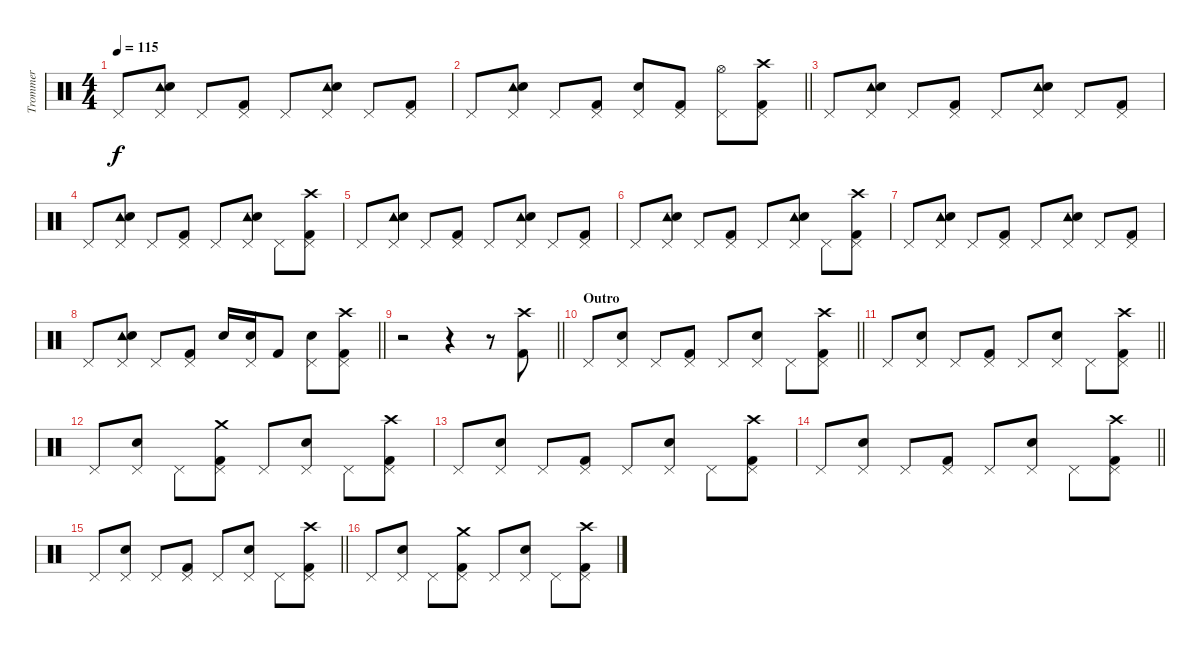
\track ("Trommer" "Trommer") {instrument percussion}
\staff {score}
\articulation defaults
\ts (4 4)
\tempo 115
\clef neutral
\ks c "Pedal Hi-Hat (hit)".8{dy f}
("Pedal Hi-Hat (hit)" "Tambourine (hit)" "Electric Snare (hit)").8 "Pedal Hi-Hat (hit)".8 ("Pedal Hi-Hat (hit)" "Kick (hit) 2").8 "Pedal Hi-Hat (hit)".8 ("Pedal Hi-Hat (hit)" "Tambourine (hit)" "Electric Snare (hit)").8 "Pedal Hi-Hat (hit)".8 ("Pedal Hi-Hat (hit)" "Kick (hit) 2").8 |
\barLineRight lightlight "Pedal Hi-Hat (hit)".8
("Pedal Hi-Hat (hit)" "Tambourine (hit)" "Electric Snare (hit)").8 "Pedal Hi-Hat (hit)".8 ("Pedal Hi-Hat (hit)" "Kick (hit) 2").8 ("Pedal Hi-Hat (hit)" "Electric Snare (hit)").8 ("Pedal Hi-Hat (hit)" "Kick (hit) 2").8 ("Pedal Hi-Hat (hit)" "Hi-Hat (open)").8 ("Pedal Hi-Hat (hit)" "Crash high (hit)" "Kick (hit) 2").8 |
"Pedal Hi-Hat (hit)".8 ("Pedal Hi-Hat (hit)" "Tambourine (hit)" "Electric Snare (hit)").8 "Pedal Hi-Hat (hit)".8 ("Pedal Hi-Hat (hit)" "Kick (hit) 2").8 "Pedal Hi-Hat (hit)".8 ("Pedal Hi-Hat (hit)" "Tambourine (hit)" "Electric Snare (hit)").8 "Pedal Hi-Hat (hit)".8 ("Pedal Hi-Hat (hit)" "Kick (hit) 2").8 |
"Pedal Hi-Hat (hit)".8 ("Pedal Hi-Hat (hit)" "Tambourine (hit)" "Electric Snare (hit)").8 "Pedal Hi-Hat (hit)".8 ("Pedal Hi-Hat (hit)" "Kick (hit) 2").8 "Pedal Hi-Hat (hit)".8 ("Pedal Hi-Hat (hit)" "Tambourine (hit)" "Electric Snare (hit)").8 "Pedal Hi-Hat (hit)".8 ("Pedal Hi-Hat (hit)" "Crash high (hit)" "Kick (hit) 2").8 |
"Pedal Hi-Hat (hit)".8 ("Pedal Hi-Hat (hit)" "Tambourine (hit)" "Electric Snare (hit)").8 "Pedal Hi-Hat (hit)".8 ("Pedal Hi-Hat (hit)" "Kick (hit) 2").8 "Pedal Hi-Hat (hit)".8 ("Pedal Hi-Hat (hit)" "Tambourine (hit)" "Electric Snare (hit)").8 "Pedal Hi-Hat (hit)".8 ("Pedal Hi-Hat (hit)" "Kick (hit) 2").8 |
"Pedal Hi-Hat (hit)".8 ("Pedal Hi-Hat (hit)" "Tambourine (hit)" "Electric Snare (hit)").8 "Pedal Hi-Hat (hit)".8 ("Pedal Hi-Hat (hit)" "Kick (hit) 2").8 "Pedal Hi-Hat (hit)".8 ("Pedal Hi-Hat (hit)" "Tambourine (hit)" "Electric Snare (hit)").8 "Pedal Hi-Hat (hit)".8 ("Pedal Hi-Hat (hit)" "Crash high (hit)" "Kick (hit) 2").8 |
"Pedal Hi-Hat (hit)".8 ("Pedal Hi-Hat (hit)" "Tambourine (hit)" "Electric Snare (hit)").8 "Pedal Hi-Hat (hit)".8 ("Pedal Hi-Hat (hit)" "Kick (hit) 2").8 "Pedal Hi-Hat (hit)".8 ("Pedal Hi-Hat (hit)" "Tambourine (hit)" "Electric Snare (hit)").8 "Pedal Hi-Hat (hit)".8 ("Pedal Hi-Hat (hit)" "Kick (hit) 2").8 |
\barLineRight lightlight "Pedal Hi-Hat (hit)".8
("Pedal Hi-Hat (hit)" "Tambourine (hit)" "Electric Snare (hit)").8 "Pedal Hi-Hat (hit)".8 ("Pedal Hi-Hat (hit)" "Kick (hit) 2").8 "Electric Snare (hit)".16 ("Pedal Hi-Hat (hit)" "Electric Snare (hit)").16 "Kick (hit) 2".8 ("Pedal Hi-Hat (hit)" "Electric Snare (hit)").8 ("Pedal Hi-Hat (hit)" "Crash high (hit)" "Kick (hit) 2").8 |
\barLineRight lightlight
r.2 r.4 r.8 ("Crash high (hit)" "Kick (hit) 2").8 |
\section ("" "Outro")
\barLineRight lightlight "Pedal Hi-Hat (hit)".8
("Pedal Hi-Hat (hit)" "Electric Snare (hit)").8 "Pedal Hi-Hat (hit)".8 ("Pedal Hi-Hat (hit)" "Kick (hit) 2").8 "Pedal Hi-Hat (hit)".8 ("Pedal Hi-Hat (hit)" "Electric Snare (hit)").8 "Pedal Hi-Hat (hit)".8 ("Pedal Hi-Hat (hit)" "Crash high (hit)" "Kick (hit) 2").8 |
\barLineRight lightlight "Pedal Hi-Hat (hit)".8
("Pedal Hi-Hat (hit)" "Electric Snare (hit)").8 "Pedal Hi-Hat (hit)".8 ("Pedal Hi-Hat (hit)" "Kick (hit) 2").8 "Pedal Hi-Hat (hit)".8 ("Pedal Hi-Hat (hit)" "Electric Snare (hit)").8 "Pedal Hi-Hat (hit)".8 ("Pedal Hi-Hat (hit)" "Crash high (hit)" "Kick (hit) 2").8 |
"Pedal Hi-Hat (hit)".8 ("Pedal Hi-Hat (hit)" "Electric Snare (hit)").8 "Pedal Hi-Hat (hit)".8 ("Pedal Hi-Hat (hit)" "Crash medium (hit)" "Kick (hit) 2").8 "Pedal Hi-Hat (hit)".8 ("Pedal Hi-Hat (hit)" "Electric Snare (hit)").8 "Pedal Hi-Hat (hit)".8 ("Pedal Hi-Hat (hit)" "Crash high (hit)" "Kick (hit) 2").8 |
"Pedal Hi-Hat (hit)".8 ("Pedal Hi-Hat (hit)" "Electric Snare (hit)").8 "Pedal Hi-Hat (hit)".8 ("Pedal Hi-Hat (hit)" "Kick (hit) 2").8 "Pedal Hi-Hat (hit)".8 ("Pedal Hi-Hat (hit)" "Electric Snare (hit)").8 "Pedal Hi-Hat (hit)".8 ("Pedal Hi-Hat (hit)" "Crash high (hit)" "Kick (hit) 2").8 |
\barLineRight lightlight "Pedal Hi-Hat (hit)".8
("Pedal Hi-Hat (hit)" "Electric Snare (hit)").8 "Pedal Hi-Hat (hit)".8 ("Pedal Hi-Hat (hit)" "Kick (hit) 2").8 "Pedal Hi-Hat (hit)".8 ("Pedal Hi-Hat (hit)" "Electric Snare (hit)").8 "Pedal Hi-Hat (hit)".8 ("Pedal Hi-Hat (hit)" "Crash high (hit)" "Kick (hit) 2").8 |
\barLineRight lightlight "Pedal Hi-Hat (hit)".8
("Pedal Hi-Hat (hit)" "Electric Snare (hit)").8 "Pedal Hi-Hat (hit)".8 ("Pedal Hi-Hat (hit)" "Kick (hit) 2").8 "Pedal Hi-Hat (hit)".8 ("Pedal Hi-Hat (hit)" "Electric Snare (hit)").8 "Pedal Hi-Hat (hit)".8 ("Pedal Hi-Hat (hit)" "Crash high (hit)" "Kick (hit) 2").8 |
"Pedal Hi-Hat (hit)".8 ("Pedal Hi-Hat (hit)" "Electric Snare (hit)").8 "Pedal Hi-Hat (hit)".8 ("Pedal Hi-Hat (hit)" "Crash medium (hit)" "Kick (hit) 2").8 "Pedal Hi-Hat (hit)".8 ("Pedal Hi-Hat (hit)" "Electric Snare (hit)").8 "Pedal Hi-Hat (hit)".8 ("Pedal Hi-Hat (hit)" "Crash high (hit)" "Kick (hit) 2").8
